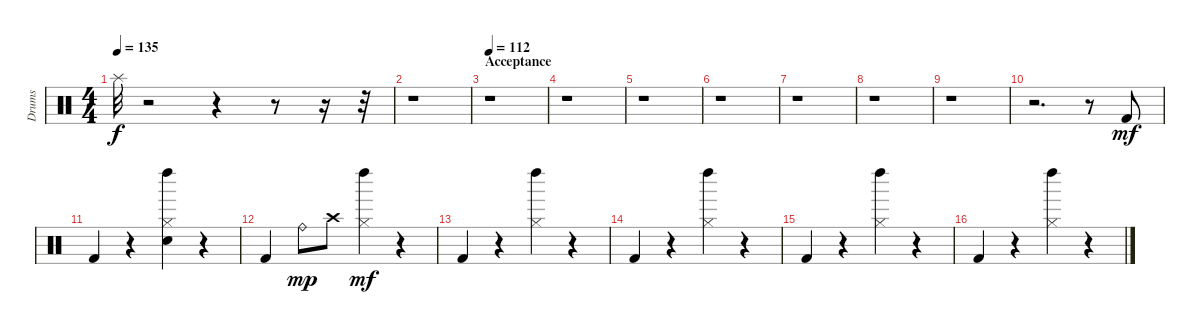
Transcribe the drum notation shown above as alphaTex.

\track ("Drums" "Drums") {instrument percussion}
\staff {score}
\articulation defaults
\ts (4 4)
\tempo 135
\clef neutral
\ks c "Splash (hit)".32{dy f}
r.2 r.4 r.8 r.16 r.32 |
r.1 |
\section ("" "Acceptance  ")
\tempo 112
r.1 |
r.1 |
r.1 |
r.1 |
r.1 |
r.1 |
r.1 |
r.2{d volume 13} r.8 "Kick (hit) 2".8{dy mf} |
"Kick (hit) 2".4 r.4 ("Hi-Hat (closed)" "Snare (hit) 2" "Left Maraca (hit)").4 r.4 |
"Kick (hit) 2".4 "Ride (bell)".8{dy mp} "Crash high (hit)".8 ("Hi-Hat (closed)" "Left Maraca (hit)").4{dy mf} r.4 |
"Kick (hit) 2".4 r.4 ("Hi-Hat (closed)" "Left Maraca (hit)").4 r.4 |
"Kick (hit) 2".4 r.4 ("Hi-Hat (closed)" "Left Maraca (hit)").4 r.4 |
"Kick (hit) 2".4 r.4 ("Hi-Hat (closed)" "Left Maraca (hit)").4 r.4 |
"Kick (hit) 2".4 r.4 ("Hi-Hat (closed)" "Left Maraca (hit)").4 r.4
